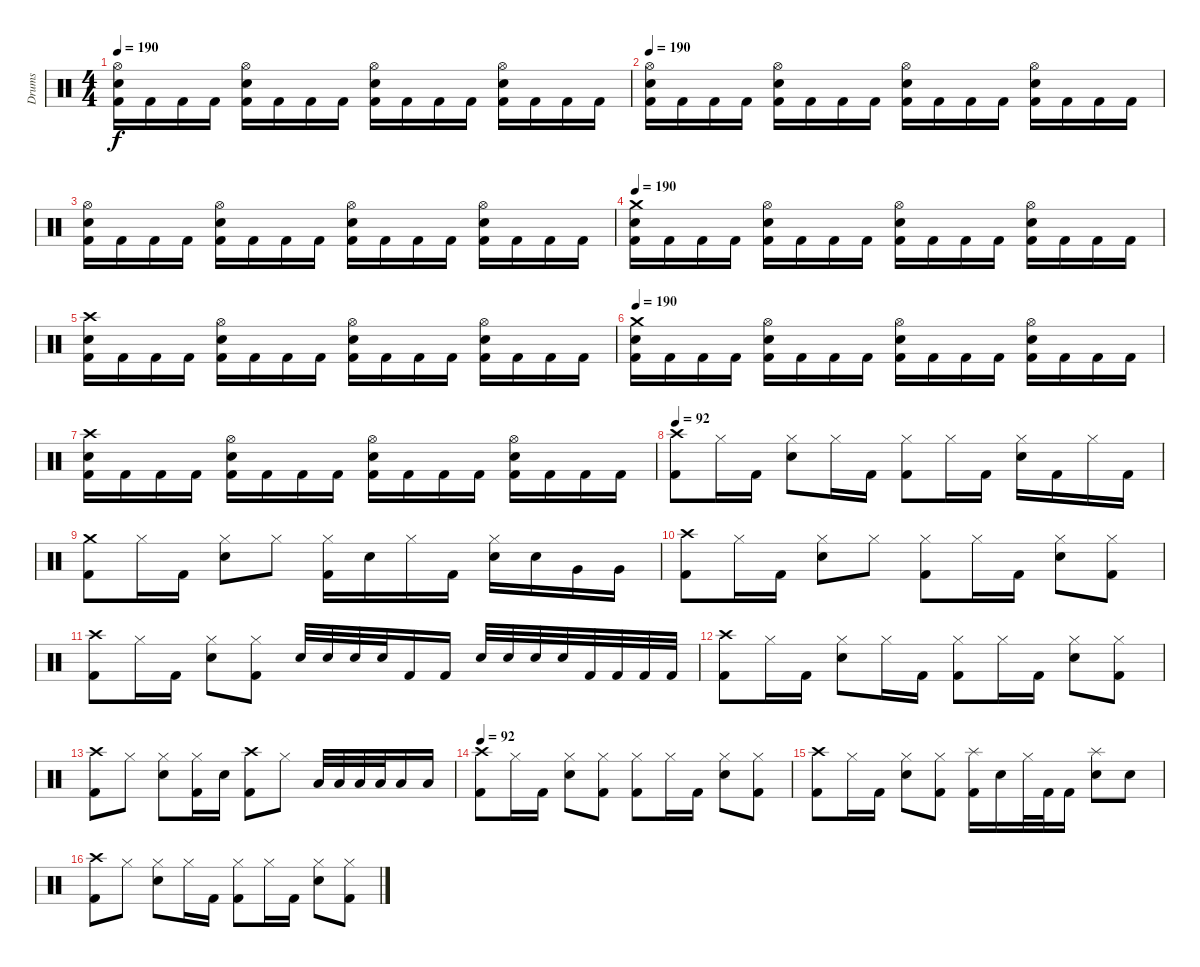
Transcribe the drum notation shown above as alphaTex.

\track ("Drums" "Drums") {instrument percussion}
\staff {score}
\articulation defaults
\ts (4 4)
\tempo 190
\clef neutral
\ks c
("Hi-Hat (open)" "Electric Snare (hit)" "Kick (hit) 2").16{dy f} "Kick (hit) 2".16 "Kick (hit) 2".16 "Kick (hit) 2".16 ("Hi-Hat (open)" "Electric Snare (hit)" "Kick (hit) 2").16 "Kick (hit) 2".16 "Kick (hit) 2".16 "Kick (hit) 2".16 ("Hi-Hat (open)" "Electric Snare (hit)" "Kick (hit) 2").16 "Kick (hit) 2".16 "Kick (hit) 2".16 "Kick (hit) 2".16 ("Hi-Hat (open)" "Electric Snare (hit)" "Kick (hit) 2").16 "Kick (hit) 2".16 "Kick (hit) 2".16 "Kick (hit) 2".16 |
\tempo 190
("Hi-Hat (open)" "Electric Snare (hit)" "Kick (hit) 2").16 "Kick (hit) 2".16 "Kick (hit) 2".16 "Kick (hit) 2".16 ("Hi-Hat (open)" "Electric Snare (hit)" "Kick (hit) 2").16 "Kick (hit) 2".16 "Kick (hit) 2".16 "Kick (hit) 2".16 ("Hi-Hat (open)" "Electric Snare (hit)" "Kick (hit) 2").16 "Kick (hit) 2".16 "Kick (hit) 2".16 "Kick (hit) 2".16 ("Hi-Hat (open)" "Electric Snare (hit)" "Kick (hit) 2").16 "Kick (hit) 2".16 "Kick (hit) 2".16 "Kick (hit) 2".16 |
("Hi-Hat (open)" "Electric Snare (hit)" "Kick (hit) 2").16 "Kick (hit) 2".16 "Kick (hit) 2".16 "Kick (hit) 2".16 ("Hi-Hat (open)" "Electric Snare (hit)" "Kick (hit) 2").16 "Kick (hit) 2".16 "Kick (hit) 2".16 "Kick (hit) 2".16 ("Hi-Hat (open)" "Electric Snare (hit)" "Kick (hit) 2").16 "Kick (hit) 2".16 "Kick (hit) 2".16 "Kick (hit) 2".16 ("Hi-Hat (open)" "Electric Snare (hit)" "Kick (hit) 2").16 "Kick (hit) 2".16 "Kick (hit) 2".16 "Kick (hit) 2".16 |
\tempo 190
("Crash medium (hit)" "Electric Snare (hit)" "Kick (hit) 2").16 "Kick (hit) 2".16 "Kick (hit) 2".16 "Kick (hit) 2".16 ("Hi-Hat (open)" "Electric Snare (hit)" "Kick (hit) 2").16 "Kick (hit) 2".16 "Kick (hit) 2".16 "Kick (hit) 2".16 ("Hi-Hat (open)" "Electric Snare (hit)" "Kick (hit) 2").16 "Kick (hit) 2".16 "Kick (hit) 2".16 "Kick (hit) 2".16 ("Hi-Hat (open)" "Electric Snare (hit)" "Kick (hit) 2").16 "Kick (hit) 2".16 "Kick (hit) 2".16 "Kick (hit) 2".16 |
("Crash high (hit)" "Electric Snare (hit)" "Kick (hit) 2").16 "Kick (hit) 2".16 "Kick (hit) 2".16 "Kick (hit) 2".16 ("Hi-Hat (open)" "Electric Snare (hit)" "Kick (hit) 2").16 "Kick (hit) 2".16 "Kick (hit) 2".16 "Kick (hit) 2".16 ("Hi-Hat (open)" "Electric Snare (hit)" "Kick (hit) 2").16 "Kick (hit) 2".16 "Kick (hit) 2".16 "Kick (hit) 2".16 ("Hi-Hat (open)" "Electric Snare (hit)" "Kick (hit) 2").16 "Kick (hit) 2".16 "Kick (hit) 2".16 "Kick (hit) 2".16 |
\tempo 190
("Crash medium (hit)" "Electric Snare (hit)" "Kick (hit) 2").16 "Kick (hit) 2".16 "Kick (hit) 2".16 "Kick (hit) 2".16 ("Hi-Hat (open)" "Electric Snare (hit)" "Kick (hit) 2").16 "Kick (hit) 2".16 "Kick (hit) 2".16 "Kick (hit) 2".16 ("Hi-Hat (open)" "Electric Snare (hit)" "Kick (hit) 2").16 "Kick (hit) 2".16 "Kick (hit) 2".16 "Kick (hit) 2".16 ("Hi-Hat (open)" "Electric Snare (hit)" "Kick (hit) 2").16 "Kick (hit) 2".16 "Kick (hit) 2".16 "Kick (hit) 2".16 |
("Crash high (hit)" "Electric Snare (hit)" "Kick (hit) 2").16 "Kick (hit) 2".16 "Kick (hit) 2".16 "Kick (hit) 2".16 ("Hi-Hat (open)" "Electric Snare (hit)" "Kick (hit) 2").16 "Kick (hit) 2".16 "Kick (hit) 2".16 "Kick (hit) 2".16 ("Hi-Hat (open)" "Electric Snare (hit)" "Kick (hit) 2").16 "Kick (hit) 2".16 "Kick (hit) 2".16 "Kick (hit) 2".16 ("Hi-Hat (open)" "Electric Snare (hit)" "Kick (hit) 2").16 "Kick (hit) 2".16 "Kick (hit) 2".16 "Kick (hit) 2".16 |
\tempo 92
("Crash high (hit)" "Kick (hit) 2").8 "Hi-Hat (closed)".16 "Kick (hit) 2".16 ("Hi-Hat (closed)" "Electric Snare (hit)").8 "Hi-Hat (closed)".16 "Kick (hit) 2".16 ("Hi-Hat (closed)" "Kick (hit) 2").8 "Hi-Hat (closed)".16 "Kick (hit) 2".16 ("Hi-Hat (closed)" "Electric Snare (hit)").16 "Kick (hit) 2".16 "Hi-Hat (closed)".16 "Kick (hit) 2".16 |
("Crash medium (hit)" "Kick (hit) 2").8 "Hi-Hat (closed)".16 "Kick (hit) 2".16 ("Hi-Hat (closed)" "Electric Snare (hit)").8 "Hi-Hat (closed)".8 ("Hi-Hat (closed)" "Kick (hit) 2").16 "Electric Snare (hit)".16 "Hi-Hat (closed)".16 "Kick (hit) 2".16 ("Hi-Hat (closed)" "Electric Snare (hit)").16 "Electric Snare (hit)".16 "Very Low Tom (hit)".16 "Very Low Tom (hit)".16 |
("Crash high (hit)" "Kick (hit) 2").8 "Hi-Hat (closed)".16 "Kick (hit) 2".16 ("Hi-Hat (closed)" "Electric Snare (hit)").8 "Hi-Hat (closed)".8 ("Hi-Hat (closed)" "Kick (hit) 2").8 "Hi-Hat (closed)".16 "Kick (hit) 2".16 ("Hi-Hat (closed)" "Electric Snare (hit)").8 ("Hi-Hat (closed)" "Kick (hit) 2").8 |
("Crash high (hit)" "Kick (hit) 2").8 "Hi-Hat (closed)".16 "Kick (hit) 2".16 ("Hi-Hat (closed)" "Electric Snare (hit)").8 ("Hi-Hat (closed)" "Kick (hit) 2").8 "Electric Snare (hit)".32 "Electric Snare (hit)".32 "Electric Snare (hit)".32 "Electric Snare (hit)".32 "Kick (hit) 2".16 "Kick (hit) 2".16 "Electric Snare (hit)".32 "Electric Snare (hit)".32 "Electric Snare (hit)".32 "Electric Snare (hit)".32 "Kick (hit) 2".32 "Kick (hit) 2".32 "Kick (hit) 2".32 "Kick (hit) 2".32 |
("Crash high (hit)" "Kick (hit) 2").8 "Hi-Hat (closed)".16 "Kick (hit) 2".16 ("Hi-Hat (closed)" "Electric Snare (hit)").8 "Hi-Hat (closed)".16 "Kick (hit) 2".16 ("Hi-Hat (closed)" "Kick (hit) 2").8 "Hi-Hat (closed)".16 "Kick (hit) 2".16 ("Hi-Hat (closed)" "Electric Snare (hit)").8 ("Hi-Hat (closed)" "Kick (hit) 2").8 |
("Crash high (hit)" "Kick (hit) 2").8 "Hi-Hat (closed)".8 ("Hi-Hat (closed)" "Electric Snare (hit)").8 ("Hi-Hat (closed)" "Kick (hit) 2").16 "Electric Snare (hit)".16 ("Crash high (hit)" "Kick (hit) 2").8 "Hi-Hat (closed)".8 "Low Tom (hit)".32 "Low Tom (hit)".32 "Low Tom (hit)".32 "Low Tom (hit)".32 "Low Tom (hit)".16 "Low Tom (hit)".16 |
\tempo 92
("Crash high (hit)" "Kick (hit) 2").8 "Hi-Hat (closed)".16 "Kick (hit) 2".16 ("Hi-Hat (closed)" "Electric Snare (hit)").8 ("Hi-Hat (closed)" "Kick (hit) 2").8 ("Hi-Hat (closed)" "Kick (hit) 2").8 "Hi-Hat (closed)".16 "Kick (hit) 2".16 ("Hi-Hat (closed)" "Electric Snare (hit)").8 ("Hi-Hat (closed)" "Kick (hit) 2").8 |
("Crash high (hit)" "Kick (hit) 2").8 "Hi-Hat (closed)".16 "Kick (hit) 2".16 ("Hi-Hat (closed)" "Electric Snare (hit)").8 ("Hi-Hat (closed)" "Kick (hit) 2").8 ("Splash (hit)" "Kick (hit) 2").16 "Electric Snare (hit)".16 "Hi-Hat (closed)".32 "Kick (hit) 2".32 "Kick (hit) 2".16 ("Splash (hit)" "Electric Snare (hit)").8 "Electric Snare (hit)".8 |
("Crash high (hit)" "Kick (hit) 2").8 "Hi-Hat (closed)".8 ("Hi-Hat (closed)" "Electric Snare (hit)").8 "Hi-Hat (closed)".16 "Kick (hit) 2".16 ("Hi-Hat (closed)" "Kick (hit) 2").8 "Hi-Hat (closed)".16 "Kick (hit) 2".16 ("Hi-Hat (closed)" "Electric Snare (hit)").8 ("Hi-Hat (closed)" "Kick (hit) 2").8
